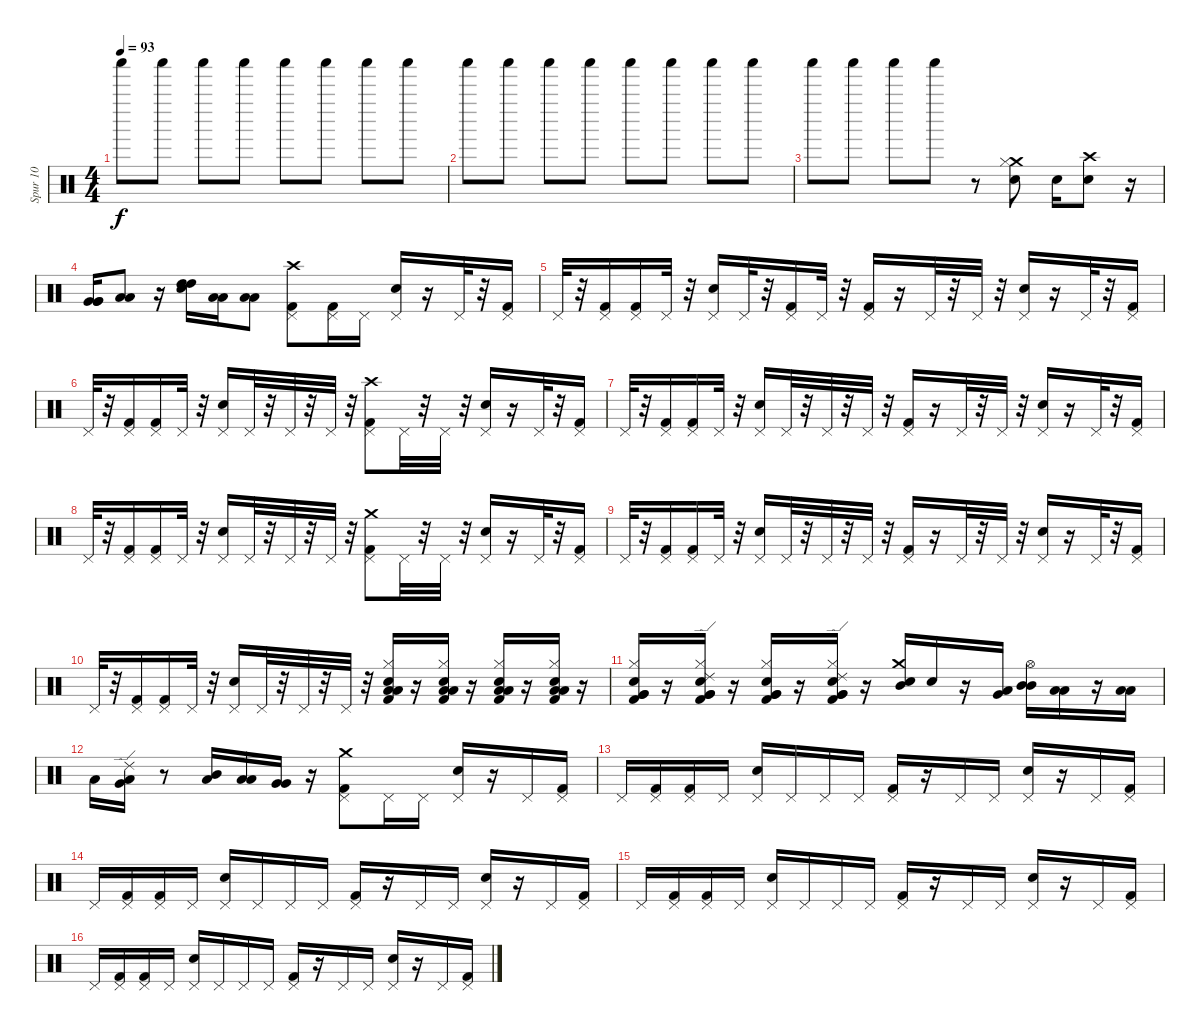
\track ("Spur 10" "Spur 10") {instrument percussion}
\staff {score}
\articulation defaults
\ts (4 4)
\tempo 93
\clef neutral
\ks c "Shaker (hit)".8{dy f} "Shaker (hit)".8 "Shaker (hit)".8 "Shaker (hit)".8 "Shaker (hit)".8 "Shaker (hit)".8 "Shaker (hit)".8 "Shaker (hit)".8
|
"Shaker (hit)".8 "Shaker (hit)".8 "Shaker (hit)".8 "Shaker (hit)".8 "Shaker (hit)".8 "Shaker (hit)".8 "Shaker (hit)".8 "Shaker (hit)".8 |
"Shaker (hit)".8 "Shaker (hit)".8 "Shaker (hit)".8 "Shaker (hit)".8 r.8 ("Electric Snare (hit)" "Crash medium (hit)" "Hi-Hat (closed)").8 "Electric Snare (hit)".16 ("Crash high (hit)" "Electric Snare (hit)").8 r.16 |
("Very Low Tom (hit)" "Very Low Tom (hit)" "Very Low Tom (hit)").16 ("Low Tom (hit)" "Low Tom (hit)").8 r.16 ("High Tom (hit)" "Electric Snare (hit)" "High Tom (hit)").16 ("Low Tom (hit)" "Low Tom (hit)").16 ("Low Floor Tom (hit)" "Low Floor Tom (hit)").8 ("Pedal Hi-Hat (hit)" "Kick (hit) 2" "Crash high (hit)").8 ("Pedal Hi-Hat (hit)" "Kick (hit) 2").16 "Pedal Hi-Hat (hit)".16 ("Pedal Hi-Hat (hit)" "Electric Snare (hit)").16 r.16 "Pedal Hi-Hat (hit)".32 r.32 ("Pedal Hi-Hat (hit)" "Kick (hit) 2").16 |
"Pedal Hi-Hat (hit)".32 r.32 ("Pedal Hi-Hat (hit)" "Kick (hit) 2").16 ("Pedal Hi-Hat (hit)" "Kick (hit) 2").16 "Pedal Hi-Hat (hit)".32 r.32 ("Pedal Hi-Hat (hit)" "Electric Snare (hit)").16 "Pedal Hi-Hat (hit)".32 r.32 ("Pedal Hi-Hat (hit)" "Kick (hit) 2").16 "Pedal Hi-Hat (hit)".32 r.32 ("Pedal Hi-Hat (hit)" "Kick (hit) 2").16 r.16 "Pedal Hi-Hat (hit)".32 r.32 "Pedal Hi-Hat (hit)".32 r.32 ("Pedal Hi-Hat (hit)" "Electric Snare (hit)").16 r.16 "Pedal Hi-Hat (hit)".32 r.32 ("Pedal Hi-Hat (hit)" "Kick (hit) 2").16 |
"Pedal Hi-Hat (hit)".32 r.32 ("Pedal Hi-Hat (hit)" "Kick (hit) 2").16 ("Pedal Hi-Hat (hit)" "Kick (hit) 2").16 "Pedal Hi-Hat (hit)".32 r.32 ("Pedal Hi-Hat (hit)" "Electric Snare (hit)").16 "Pedal Hi-Hat (hit)".32 r.32 "Pedal Hi-Hat (hit)".32 r.32 "Pedal Hi-Hat (hit)".32 r.32 ("Crash high (hit)" "Pedal Hi-Hat (hit)" "Kick (hit) 2").8 "Pedal Hi-Hat (hit)".32 r.32 "Pedal Hi-Hat (hit)".32 r.32 ("Pedal Hi-Hat (hit)" "Electric Snare (hit)").16 r.16 "Pedal Hi-Hat (hit)".32 r.32 ("Pedal Hi-Hat (hit)" "Kick (hit) 2").16 |
"Pedal Hi-Hat (hit)".32 r.32 ("Pedal Hi-Hat (hit)" "Kick (hit) 2").16 ("Pedal Hi-Hat (hit)" "Kick (hit) 2").16 "Pedal Hi-Hat (hit)".32 r.32 ("Pedal Hi-Hat (hit)" "Electric Snare (hit)").16 "Pedal Hi-Hat (hit)".32 r.32 "Pedal Hi-Hat (hit)".32 r.32 "Pedal Hi-Hat (hit)".32 r.32 ("Pedal Hi-Hat (hit)" "Kick (hit) 2").16 r.16 "Pedal Hi-Hat (hit)".32 r.32 "Pedal Hi-Hat (hit)".32 r.32 ("Pedal Hi-Hat (hit)" "Electric Snare (hit)").16 r.16 "Pedal Hi-Hat (hit)".32 r.32 ("Pedal Hi-Hat (hit)" "Kick (hit) 2").16 |
"Pedal Hi-Hat (hit)".32 r.32 ("Pedal Hi-Hat (hit)" "Kick (hit) 2").16 ("Pedal Hi-Hat (hit)" "Kick (hit) 2").16 "Pedal Hi-Hat (hit)".32 r.32 ("Pedal Hi-Hat (hit)" "Electric Snare (hit)").16 "Pedal Hi-Hat (hit)".32 r.32 "Pedal Hi-Hat (hit)".32 r.32 "Pedal Hi-Hat (hit)".32 r.32 ("Crash medium (hit)" "Pedal Hi-Hat (hit)" "Kick (hit) 2").8 "Pedal Hi-Hat (hit)".32 r.32 "Pedal Hi-Hat (hit)".32 r.32 ("Pedal Hi-Hat (hit)" "Electric Snare (hit)").16 r.16 "Pedal Hi-Hat (hit)".32 r.32 ("Pedal Hi-Hat (hit)" "Kick (hit) 2").16 |
"Pedal Hi-Hat (hit)".32 r.32 ("Pedal Hi-Hat (hit)" "Kick (hit) 2").16 ("Pedal Hi-Hat (hit)" "Kick (hit) 2").16 "Pedal Hi-Hat (hit)".32 r.32 ("Pedal Hi-Hat (hit)" "Electric Snare (hit)").16 "Pedal Hi-Hat (hit)".32 r.32 "Pedal Hi-Hat (hit)".32 r.32 "Pedal Hi-Hat (hit)".32 r.32 ("Pedal Hi-Hat (hit)" "Kick (hit) 2").16 r.16 "Pedal Hi-Hat (hit)".32 r.32 "Pedal Hi-Hat (hit)".32 r.32 ("Pedal Hi-Hat (hit)" "Electric Snare (hit)").16 r.16 "Pedal Hi-Hat (hit)".32 r.32 ("Pedal Hi-Hat (hit)" "Kick (hit) 2").16 |
"Pedal Hi-Hat (hit)".32 r.32 ("Pedal Hi-Hat (hit)" "Kick (hit) 2").16 ("Pedal Hi-Hat (hit)" "Kick (hit) 2").16 "Pedal Hi-Hat (hit)".32 r.32 ("Pedal Hi-Hat (hit)" "Electric Snare (hit)").16 "Pedal Hi-Hat (hit)".32 r.32 "Pedal Hi-Hat (hit)".32 r.32 "Pedal Hi-Hat (hit)".32 r.32 ("Hi-Hat (closed)" "Low Tom (hit)" "Low Tom (hit)" "Kick (hit) 2" "Electric Snare (hit)").16 r.16 ("Hi-Hat (closed)" "Low Tom (hit)" "Low Tom (hit)" "Kick (hit) 2" "Electric Snare (hit)").16 r.16 ("Hi-Hat (closed)" "Low Tom (hit)" "Low Tom (hit)" "Kick (hit) 2" "Electric Snare (hit)").16 r.16 ("Hi-Hat (closed)" "Low Tom (hit)" "Low Tom (hit)" "Kick (hit) 2" "Electric Snare (hit)").16 r.16 |
("Hi-Hat (closed)" "Very Low Tom (hit)" "Kick (hit) 2" "Electric Snare (hit)" "Very Low Tom (hit)").16 r.16 ("Ride (edge) 2" "Hi-Hat (closed)" "Very Low Tom (hit)" "Kick (hit) 2" "Very Low Tom (hit)" "Electric Snare (hit)").16 r.16 ("Hi-Hat (closed)" "Very Low Tom (hit)" "Very Low Tom (hit)" "Kick (hit) 2" "Electric Snare (hit)").16 r.16 ("Ride (edge) 2" "Hi-Hat (closed)" "Very Low Tom (hit)" "Very Low Tom (hit)" "Kick (hit) 2" "Electric Snare (hit)").16 r.16 ("Crash medium (hit)" "Mid Tom (hit)" "Electric Snare (hit)").16 "Electric Snare (hit)".16 r.16 ("Very Low Tom (hit)" "Low Tom (hit)").16 ("Hi-Hat (open)" "Mid Tom (hit)" "Mid Tom (hit)").16 ("Low Tom (hit)" "Low Tom (hit)").16 r.16 ("Low Tom (hit)" "Low Tom (hit)").16 |
"Low Floor Tom (hit)".16 ("Ride (edge) 2" "Very Low Tom (hit)" "Low Floor Tom (hit)").16 r.8 ("Low Tom (hit)" "Mid Tom (hit)").16 ("Low Tom (hit)" "Low Tom (hit)").16 ("Very Low Tom (hit)" "Very Low Tom (hit)").16 r.16 ("Pedal Hi-Hat (hit)" "Crash medium (hit)" "Kick (hit) 2").8 "Pedal Hi-Hat (hit)".16 "Pedal Hi-Hat (hit)".16 ("Pedal Hi-Hat (hit)" "Electric Snare (hit)").16 r.16 "Pedal Hi-Hat (hit)".16 ("Pedal Hi-Hat (hit)" "Kick (hit) 2").16 |
"Pedal Hi-Hat (hit)".16 ("Pedal Hi-Hat (hit)" "Kick (hit) 2").16 ("Pedal Hi-Hat (hit)" "Kick (hit) 2").16 "Pedal Hi-Hat (hit)".16 ("Pedal Hi-Hat (hit)" "Electric Snare (hit)").16 "Pedal Hi-Hat (hit)".16 "Pedal Hi-Hat (hit)".16 "Pedal Hi-Hat (hit)".16 ("Pedal Hi-Hat (hit)" "Kick (hit) 2").16 r.16 "Pedal Hi-Hat (hit)".16 "Pedal Hi-Hat (hit)".16 ("Pedal Hi-Hat (hit)" "Electric Snare (hit)").16 r.16 "Pedal Hi-Hat (hit)".16 ("Pedal Hi-Hat (hit)" "Kick (hit) 2").16 |
"Pedal Hi-Hat (hit)".16 ("Pedal Hi-Hat (hit)" "Kick (hit) 2").16 ("Pedal Hi-Hat (hit)" "Kick (hit) 2").16 "Pedal Hi-Hat (hit)".16 ("Pedal Hi-Hat (hit)" "Electric Snare (hit)").16 "Pedal Hi-Hat (hit)".16 "Pedal Hi-Hat (hit)".16 "Pedal Hi-Hat (hit)".16 ("Pedal Hi-Hat (hit)" "Kick (hit) 2").16 r.16 "Pedal Hi-Hat (hit)".16 "Pedal Hi-Hat (hit)".16 ("Pedal Hi-Hat (hit)" "Electric Snare (hit)").16 r.16 "Pedal Hi-Hat (hit)".16 ("Pedal Hi-Hat (hit)" "Kick (hit) 2").16 |
"Pedal Hi-Hat (hit)".16 ("Pedal Hi-Hat (hit)" "Kick (hit) 2").16 ("Pedal Hi-Hat (hit)" "Kick (hit) 2").16 "Pedal Hi-Hat (hit)".16 ("Pedal Hi-Hat (hit)" "Electric Snare (hit)").16 "Pedal Hi-Hat (hit)".16 "Pedal Hi-Hat (hit)".16 "Pedal Hi-Hat (hit)".16 ("Pedal Hi-Hat (hit)" "Kick (hit) 2").16 r.16 "Pedal Hi-Hat (hit)".16 "Pedal Hi-Hat (hit)".16 ("Pedal Hi-Hat (hit)" "Electric Snare (hit)").16 r.16 "Pedal Hi-Hat (hit)".16 ("Pedal Hi-Hat (hit)" "Kick (hit) 2").16 |
"Pedal Hi-Hat (hit)".16 ("Pedal Hi-Hat (hit)" "Kick (hit) 2").16 ("Pedal Hi-Hat (hit)" "Kick (hit) 2").16 "Pedal Hi-Hat (hit)".16 ("Pedal Hi-Hat (hit)" "Electric Snare (hit)").16 "Pedal Hi-Hat (hit)".16 "Pedal Hi-Hat (hit)".16 "Pedal Hi-Hat (hit)".16 ("Pedal Hi-Hat (hit)" "Kick (hit) 2").16 r.16 "Pedal Hi-Hat (hit)".16 "Pedal Hi-Hat (hit)".16 ("Pedal Hi-Hat (hit)" "Electric Snare (hit)").16 r.16 "Pedal Hi-Hat (hit)".16 ("Pedal Hi-Hat (hit)" "Kick (hit) 2").16
